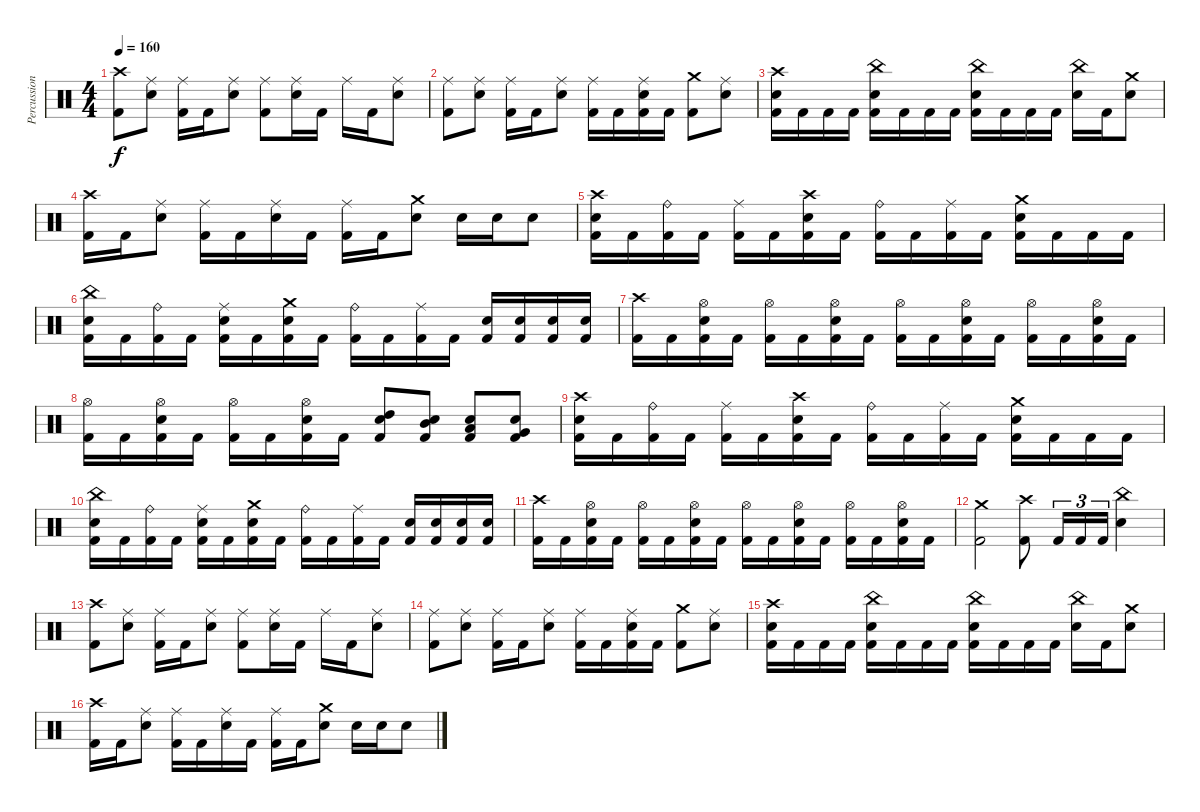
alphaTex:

\track ("Percussion" "Percussion") {instrument percussion}
\staff {score}
\articulation defaults
\ts (4 4)
\tempo 160
\clef neutral
\ks c
("Crash high (hit)" "Kick (hit) 2").8{dy f} ("Ride (middle)" "Electric Snare (hit)").8 ("Ride (middle)" "Kick (hit) 2").16 "Kick (hit) 2".16 ("Ride (middle)" "Electric Snare (hit)").8 ("Ride (middle)" "Kick (hit) 2").8 ("Ride (middle)" "Electric Snare (hit)").16 "Kick (hit) 2".16 "Ride (middle)".16 "Kick (hit) 2".16 ("Ride (middle)" "Electric Snare (hit)").8 |
("Ride (middle)" "Kick (hit) 2").8 ("Ride (middle)" "Electric Snare (hit)").8 ("Ride (middle)" "Kick (hit) 2").16 "Kick (hit) 2".16 ("Ride (middle)" "Electric Snare (hit)").8 ("Ride (middle)" "Kick (hit) 2").16 "Kick (hit) 2".16 ("Ride (middle)" "Electric Snare (hit)" "Kick (hit) 2").16 "Kick (hit) 2".16 ("Crash medium (hit)" "Kick (hit) 2").8 ("Ride (middle)" "Electric Snare (hit)").8 |
("Crash high (hit)" "Electric Snare (hit)" "Kick (hit) 2").16 "Kick (hit) 2".16 "Kick (hit) 2".16 "Kick (hit) 2".16 ("China (hit)" "Electric Snare (hit)" "Kick (hit) 2").16 "Kick (hit) 2".16 "Kick (hit) 2".16 "Kick (hit) 2".16 ("China (hit)" "Electric Snare (hit)" "Kick (hit) 2").16 "Kick (hit) 2".16 "Kick (hit) 2".16 "Kick (hit) 2".16 ("China (hit)" "Electric Snare (hit)").16 "Kick (hit) 2".16 ("Crash medium (hit)" "Electric Snare (hit)").8 |
("Crash high (hit)" "Kick (hit) 2").16 "Kick (hit) 2".16 ("Ride (middle)" "Electric Snare (hit)").8 ("Ride (middle)" "Kick (hit) 2").16 "Kick (hit) 2".16 ("Ride (middle)" "Electric Snare (hit)").16 "Kick (hit) 2".16 ("Ride (middle)" "Kick (hit) 2").16 "Kick (hit) 2".16 ("Crash medium (hit)" "Electric Snare (hit)").8 "Electric Snare (hit)".16 "Electric Snare (hit)".16 "Electric Snare (hit)".8 |
("Crash high (hit)" "Electric Snare (hit)" "Kick (hit) 2").16 "Kick (hit) 2".16 ("Ride (bell)" "Kick (hit) 2").16 "Kick (hit) 2".16 ("Ride (middle)" "Kick (hit) 2").16 "Kick (hit) 2".16 ("Crash high (hit)" "Electric Snare (hit)" "Kick (hit) 2").16 "Kick (hit) 2".16 ("Ride (bell)" "Kick (hit) 2").16 "Kick (hit) 2".16 ("Ride (middle)" "Kick (hit) 2").16 "Kick (hit) 2".16 ("Crash medium (hit)" "Electric Snare (hit)" "Kick (hit) 2").16 "Kick (hit) 2".16 "Kick (hit) 2".16 "Kick (hit) 2".16 |
("China (hit)" "Electric Snare (hit)" "Kick (hit) 2").16 "Kick (hit) 2".16 ("Ride (bell)" "Kick (hit) 2").16 "Kick (hit) 2".16 ("Ride (middle)" "Electric Snare (hit)" "Kick (hit) 2").16 "Kick (hit) 2".16 ("Crash medium (hit)" "Electric Snare (hit)" "Kick (hit) 2").16 "Kick (hit) 2".16 ("Ride (bell)" "Kick (hit) 2").16 "Kick (hit) 2".16 ("Ride (middle)" "Kick (hit) 2").16 "Kick (hit) 2".16 ("Electric Snare (hit)" "Kick (hit) 2").16 ("Electric Snare (hit)" "Kick (hit) 2").16 ("Electric Snare (hit)" "Kick (hit) 2").16 ("Electric Snare (hit)" "Kick (hit) 2").16 |
("Crash high (hit)" "Kick (hit) 2").16 "Kick (hit) 2".16 ("Hi-Hat (open)" "Electric Snare (hit)" "Kick (hit) 2").16 "Kick (hit) 2".16 ("Hi-Hat (open)" "Kick (hit) 2").16 "Kick (hit) 2".16 ("Hi-Hat (open)" "Electric Snare (hit)" "Kick (hit) 2").16 "Kick (hit) 2".16 ("Hi-Hat (open)" "Kick (hit) 2").16 "Kick (hit) 2".16 ("Hi-Hat (open)" "Electric Snare (hit)" "Kick (hit) 2").16 "Kick (hit) 2".16 ("Hi-Hat (open)" "Kick (hit) 2").16 "Kick (hit) 2".16 ("Hi-Hat (open)" "Electric Snare (hit)" "Kick (hit) 2").16 "Kick (hit) 2".16 |
("Hi-Hat (open)" "Kick (hit) 2").16 "Kick (hit) 2".16 ("Hi-Hat (open)" "Electric Snare (hit)" "Kick (hit) 2").16 "Kick (hit) 2".16 ("Hi-Hat (open)" "Kick (hit) 2").16 "Kick (hit) 2".16 ("Hi-Hat (open)" "Electric Snare (hit)" "Kick (hit) 2").16 "Kick (hit) 2".16 ("High Tom (hit)" "Electric Snare (hit)" "Kick (hit) 2").8 ("Mid Tom (hit)" "Electric Snare (hit)" "Kick (hit) 2").8 ("Low Tom (hit)" "Electric Snare (hit)" "Kick (hit) 2").8 ("Very Low Tom (hit)" "Electric Snare (hit)" "Kick (hit) 2").8 |
("Crash high (hit)" "Electric Snare (hit)" "Kick (hit) 2").16 "Kick (hit) 2".16 ("Ride (bell)" "Kick (hit) 2").16 "Kick (hit) 2".16 ("Ride (middle)" "Kick (hit) 2").16 "Kick (hit) 2".16 ("Crash high (hit)" "Electric Snare (hit)" "Kick (hit) 2").16 "Kick (hit) 2".16 ("Ride (bell)" "Kick (hit) 2").16 "Kick (hit) 2".16 ("Ride (middle)" "Kick (hit) 2").16 "Kick (hit) 2".16 ("Crash medium (hit)" "Electric Snare (hit)" "Kick (hit) 2").16 "Kick (hit) 2".16 "Kick (hit) 2".16 "Kick (hit) 2".16 |
("China (hit)" "Electric Snare (hit)" "Kick (hit) 2").16 "Kick (hit) 2".16 ("Ride (bell)" "Kick (hit) 2").16 "Kick (hit) 2".16 ("Ride (middle)" "Electric Snare (hit)" "Kick (hit) 2").16 "Kick (hit) 2".16 ("Crash medium (hit)" "Electric Snare (hit)" "Kick (hit) 2").16 "Kick (hit) 2".16 ("Ride (bell)" "Kick (hit) 2").16 "Kick (hit) 2".16 ("Ride (middle)" "Kick (hit) 2").16 "Kick (hit) 2".16 ("Electric Snare (hit)" "Kick (hit) 2").16 ("Electric Snare (hit)" "Kick (hit) 2").16 ("Electric Snare (hit)" "Kick (hit) 2").16 ("Electric Snare (hit)" "Kick (hit) 2").16 |
("Crash high (hit)" "Kick (hit) 2").16 "Kick (hit) 2".16 ("Hi-Hat (open)" "Electric Snare (hit)" "Kick (hit) 2").16 "Kick (hit) 2".16 ("Hi-Hat (open)" "Kick (hit) 2").16 "Kick (hit) 2".16 ("Hi-Hat (open)" "Electric Snare (hit)" "Kick (hit) 2").16 "Kick (hit) 2".16 ("Hi-Hat (open)" "Kick (hit) 2").16 "Kick (hit) 2".16 ("Hi-Hat (open)" "Electric Snare (hit)" "Kick (hit) 2").16 "Kick (hit) 2".16 ("Hi-Hat (open)" "Kick (hit) 2").16 "Kick (hit) 2".16 ("Hi-Hat (open)" "Electric Snare (hit)" "Kick (hit) 2").16 "Kick (hit) 2".16 |
("Crash medium (hit)" "Kick (hit) 2").2 ("Crash high (hit)" "Kick (hit) 2").8 "Kick (hit) 2".16{tu (3 2)} "Kick (hit) 2".16{tu (3 2)} "Kick (hit) 2".16{tu (3 2)} ("China (hit)" "Electric Snare (hit)").4 |
("Crash high (hit)" "Kick (hit) 2").8 ("Ride (middle)" "Electric Snare (hit)").8 ("Ride (middle)" "Kick (hit) 2").16 "Kick (hit) 2".16 ("Ride (middle)" "Electric Snare (hit)").8 ("Ride (middle)" "Kick (hit) 2").8 ("Ride (middle)" "Electric Snare (hit)").16 "Kick (hit) 2".16 "Ride (middle)".16 "Kick (hit) 2".16 ("Ride (middle)" "Electric Snare (hit)").8 |
("Ride (middle)" "Kick (hit) 2").8 ("Ride (middle)" "Electric Snare (hit)").8 ("Ride (middle)" "Kick (hit) 2").16 "Kick (hit) 2".16 ("Ride (middle)" "Electric Snare (hit)").8 ("Ride (middle)" "Kick (hit) 2").16 "Kick (hit) 2".16 ("Ride (middle)" "Electric Snare (hit)" "Kick (hit) 2").16 "Kick (hit) 2".16 ("Crash medium (hit)" "Kick (hit) 2").8 ("Ride (middle)" "Electric Snare (hit)").8 |
("Crash high (hit)" "Electric Snare (hit)" "Kick (hit) 2").16 "Kick (hit) 2".16 "Kick (hit) 2".16 "Kick (hit) 2".16 ("China (hit)" "Electric Snare (hit)" "Kick (hit) 2").16 "Kick (hit) 2".16 "Kick (hit) 2".16 "Kick (hit) 2".16 ("China (hit)" "Electric Snare (hit)" "Kick (hit) 2").16 "Kick (hit) 2".16 "Kick (hit) 2".16 "Kick (hit) 2".16 ("China (hit)" "Electric Snare (hit)").16 "Kick (hit) 2".16 ("Crash medium (hit)" "Electric Snare (hit)").8 |
("Crash high (hit)" "Kick (hit) 2").16 "Kick (hit) 2".16 ("Ride (middle)" "Electric Snare (hit)").8 ("Ride (middle)" "Kick (hit) 2").16 "Kick (hit) 2".16 ("Ride (middle)" "Electric Snare (hit)").16 "Kick (hit) 2".16 ("Ride (middle)" "Kick (hit) 2").16 "Kick (hit) 2".16 ("Crash medium (hit)" "Electric Snare (hit)").8 "Electric Snare (hit)".16 "Electric Snare (hit)".16 "Electric Snare (hit)".8
